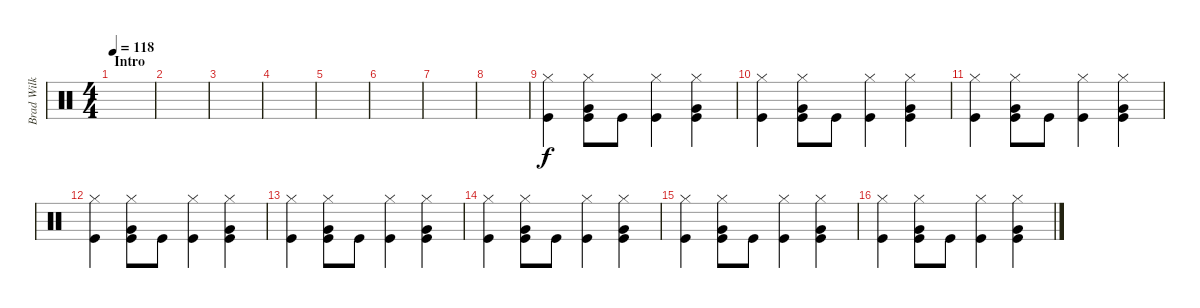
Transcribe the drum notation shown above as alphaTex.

\track ("Brad Wilk - Drums" "Brad Wilk ") {instrument percussion}
\staff {score}
\articulation defaults
\ts (4 4)
\section ("" "Intro")
\tempo 118
\clef neutral
\ks c
|
|
|
|
|
|
|
|
("Hi-Hat (closed)" "Kick (hit)").4 ("Hi-Hat (closed)" "Very Low Tom (hit)" "Kick (hit)").8 "Kick (hit)".8 ("Hi-Hat (closed)" "Kick (hit)").4 ("Hi-Hat (closed)" "Very Low Tom (hit)" "Kick (hit)").4 |
("Hi-Hat (closed)" "Kick (hit)").4 ("Hi-Hat (closed)" "Very Low Tom (hit)" "Kick (hit)").8 "Kick (hit)".8 ("Hi-Hat (closed)" "Kick (hit)").4 ("Hi-Hat (closed)" "Very Low Tom (hit)" "Kick (hit)").4 |
("Hi-Hat (closed)" "Kick (hit)").4 ("Hi-Hat (closed)" "Very Low Tom (hit)" "Kick (hit)").8 "Kick (hit)".8 ("Hi-Hat (closed)" "Kick (hit)").4 ("Hi-Hat (closed)" "Very Low Tom (hit)" "Kick (hit)").4 |
("Hi-Hat (closed)" "Kick (hit)").4 ("Hi-Hat (closed)" "Very Low Tom (hit)" "Kick (hit)").8 "Kick (hit)".8 ("Hi-Hat (closed)" "Kick (hit)").4 ("Hi-Hat (closed)" "Very Low Tom (hit)" "Kick (hit)").4 |
("Hi-Hat (closed)" "Kick (hit)").4 ("Hi-Hat (closed)" "Very Low Tom (hit)" "Kick (hit)").8 "Kick (hit)".8 ("Hi-Hat (closed)" "Kick (hit)").4 ("Hi-Hat (closed)" "Very Low Tom (hit)" "Kick (hit)").4 |
("Hi-Hat (closed)" "Kick (hit)").4 ("Hi-Hat (closed)" "Very Low Tom (hit)" "Kick (hit)").8 "Kick (hit)".8 ("Hi-Hat (closed)" "Kick (hit)").4 ("Hi-Hat (closed)" "Very Low Tom (hit)" "Kick (hit)").4 |
("Hi-Hat (closed)" "Kick (hit)").4 ("Hi-Hat (closed)" "Very Low Tom (hit)" "Kick (hit)").8 "Kick (hit)".8 ("Hi-Hat (closed)" "Kick (hit)").4 ("Hi-Hat (closed)" "Very Low Tom (hit)" "Kick (hit)").4 |
("Hi-Hat (closed)" "Kick (hit)").4 ("Hi-Hat (closed)" "Very Low Tom (hit)" "Kick (hit)").8 "Kick (hit)".8 ("Hi-Hat (closed)" "Kick (hit)").4 ("Hi-Hat (closed)" "Very Low Tom (hit)" "Kick (hit)").4
